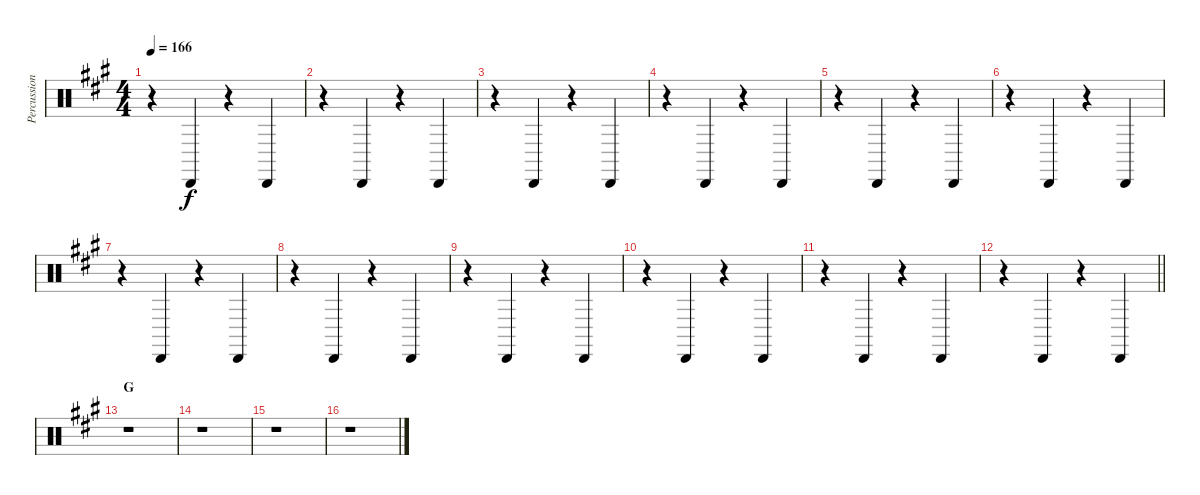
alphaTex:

\track ("Percussion IV" "Percussion") {instrument percussion}
\staff {score}
\articulation defaults
\ts (4 4)
\tempo 166
\clef neutral
\ks a
r.4{dy f} "Cabasa (hit)".4 r.4 "Cabasa (hit)".4 |
r.4 "Cabasa (hit)".4 r.4 "Cabasa (hit)".4 |
r.4 "Cabasa (hit)".4 r.4 "Cabasa (hit)".4 |
r.4 "Cabasa (hit)".4 r.4 "Cabasa (hit)".4 |
r.4 "Cabasa (hit)".4 r.4 "Cabasa (hit)".4 |
r.4 "Cabasa (hit)".4 r.4 "Cabasa (hit)".4 |
r.4 "Cabasa (hit)".4 r.4 "Cabasa (hit)".4 |
r.4 "Cabasa (hit)".4 r.4 "Cabasa (hit)".4 |
r.4 "Cabasa (hit)".4 r.4 "Cabasa (hit)".4 |
r.4 "Cabasa (hit)".4 r.4 "Cabasa (hit)".4 |
r.4 "Cabasa (hit)".4 r.4 "Cabasa (hit)".4 |
\barLineRight lightlight
r.4 "Cabasa (hit)".4 r.4 "Cabasa (hit)".4 |
\section ("" "G")
r.1 |
r.1 |
r.1 |
r.1
